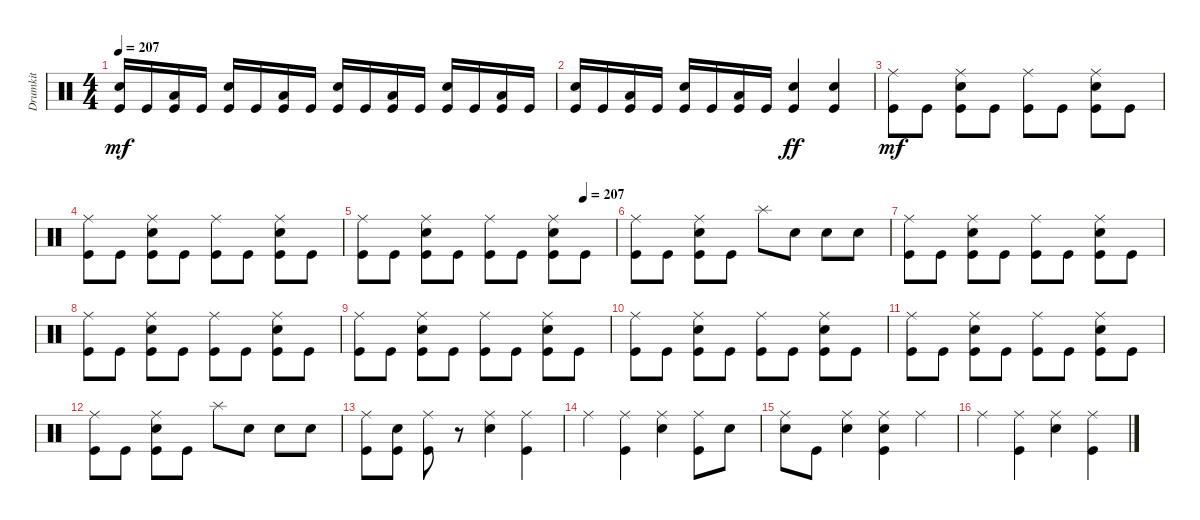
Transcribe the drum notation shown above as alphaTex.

\track ("Drumkit" "Drumkit") {instrument percussion}
\staff {score}
\articulation defaults
\ts (4 4)
\tempo 207
\clef neutral
\ks c
("Snare (hit) 2" "Kick (hit)").16{dy mf} "Kick (hit)".16 ("Low Tom (hit)" "Kick (hit)").16 "Kick (hit)".16 ("Snare (hit) 2" "Kick (hit)").16 "Kick (hit)".16 ("Low Tom (hit)" "Kick (hit)").16 "Kick (hit)".16 ("Snare (hit) 2" "Kick (hit)").16 "Kick (hit)".16 ("Low Tom (hit)" "Kick (hit)").16 "Kick (hit)".16 ("Snare (hit) 2" "Kick (hit)").16 "Kick (hit)".16 ("Low Tom (hit)" "Kick (hit)").16 "Kick (hit)".16 |
("Snare (hit) 2" "Kick (hit)").16 "Kick (hit)".16 ("Low Tom (hit)" "Kick (hit)").16 "Kick (hit)".16 ("Snare (hit) 2" "Kick (hit)").16 "Kick (hit)".16 ("Low Tom (hit)" "Kick (hit)").16 "Kick (hit)".16 ("Snare (hit) 2" "Kick (hit)").4{dy ff} ("Snare (hit) 2" "Kick (hit)").4 |
("Kick (hit)" "Ride (middle)").8{dy mf} "Kick (hit)".8 ("Snare (hit) 2" "Ride (middle)" "Kick (hit)").8 "Kick (hit)".8 ("Kick (hit)" "Ride (middle)").8 "Kick (hit)".8 ("Snare (hit) 2" "Ride (middle)" "Kick (hit)").8 "Kick (hit)".8 |
("Kick (hit)" "Ride (middle)").8 "Kick (hit)".8 ("Snare (hit) 2" "Ride (middle)" "Kick (hit)").8 "Kick (hit)".8 ("Kick (hit)" "Ride (middle)").8 "Kick (hit)".8 ("Snare (hit) 2" "Ride (middle)" "Kick (hit)").8 "Kick (hit)".8 |
\tempo (207 0.875)
("Kick (hit)" "Ride (middle)").8 "Kick (hit)".8 ("Snare (hit) 2" "Ride (middle)" "Kick (hit)").8 "Kick (hit)".8 ("Kick (hit)" "Ride (middle)").8 "Kick (hit)".8 ("Snare (hit) 2" "Ride (middle)" "Kick (hit)").8 "Kick (hit)".8 |
("Kick (hit)" "Ride (middle)").8 "Kick (hit)".8 ("Snare (hit) 2" "Ride (middle)" "Kick (hit)").8 "Kick (hit)".8 "Splash (hit)".8 "Snare (hit) 2".8 "Snare (hit) 2".8 "Snare (hit) 2".8 |
("Kick (hit)" "Ride (middle)").8 "Kick (hit)".8 ("Snare (hit) 2" "Ride (middle)" "Kick (hit)").8 "Kick (hit)".8 ("Kick (hit)" "Ride (middle)").8 "Kick (hit)".8 ("Snare (hit) 2" "Ride (middle)" "Kick (hit)").8 "Kick (hit)".8 |
("Kick (hit)" "Ride (middle)").8 "Kick (hit)".8 ("Snare (hit) 2" "Ride (middle)" "Kick (hit)").8 "Kick (hit)".8 ("Kick (hit)" "Ride (middle)").8 "Kick (hit)".8 ("Snare (hit) 2" "Ride (middle)" "Kick (hit)").8 "Kick (hit)".8 |
("Kick (hit)" "Ride (middle)").8 "Kick (hit)".8 ("Snare (hit) 2" "Ride (middle)" "Kick (hit)").8 "Kick (hit)".8 ("Kick (hit)" "Ride (middle)").8 "Kick (hit)".8 ("Snare (hit) 2" "Ride (middle)" "Kick (hit)").8 "Kick (hit)".8 |
("Kick (hit)" "Ride (middle)").8 "Kick (hit)".8 ("Snare (hit) 2" "Ride (middle)" "Kick (hit)").8 "Kick (hit)".8 ("Kick (hit)" "Ride (middle)").8 "Kick (hit)".8 ("Snare (hit) 2" "Ride (middle)" "Kick (hit)").8 "Kick (hit)".8 |
("Kick (hit)" "Ride (middle)").8 "Kick (hit)".8 ("Snare (hit) 2" "Ride (middle)" "Kick (hit)").8 "Kick (hit)".8 ("Kick (hit)" "Ride (middle)").8 "Kick (hit)".8 ("Snare (hit) 2" "Ride (middle)" "Kick (hit)").8 "Kick (hit)".8 |
("Kick (hit)" "Ride (middle)").8 "Kick (hit)".8 ("Snare (hit) 2" "Ride (middle)" "Kick (hit)").8 "Kick (hit)".8 "Splash (hit)".8 "Snare (hit) 2".8 "Snare (hit) 2".8 "Snare (hit) 2".8 |
("Ride (middle)" "Kick (hit)").8 ("Snare (hit) 2" "Kick (hit)").8 ("Ride (middle)" "Kick (hit)").8 r.8 ("Snare (hit) 2" "Ride (middle)").4 ("Ride (middle)" "Kick (hit)").4 |
"Ride (middle)".4 ("Ride (middle)" "Kick (hit)").4 ("Ride (middle)" "Snare (hit) 2").4 ("Kick (hit)" "Ride (middle)").8 "Snare (hit) 2".8 |
("Ride (middle)" "Snare (hit) 2").8 "Kick (hit)".8 ("Ride (middle)" "Snare (hit) 2").4 ("Ride (middle)" "Kick (hit)" "Snare (hit) 2").4 "Ride (middle)".4 |
"Ride (middle)".4 ("Ride (middle)" "Kick (hit)").4 ("Ride (middle)" "Snare (hit) 2").4 ("Ride (middle)" "Kick (hit)").4
